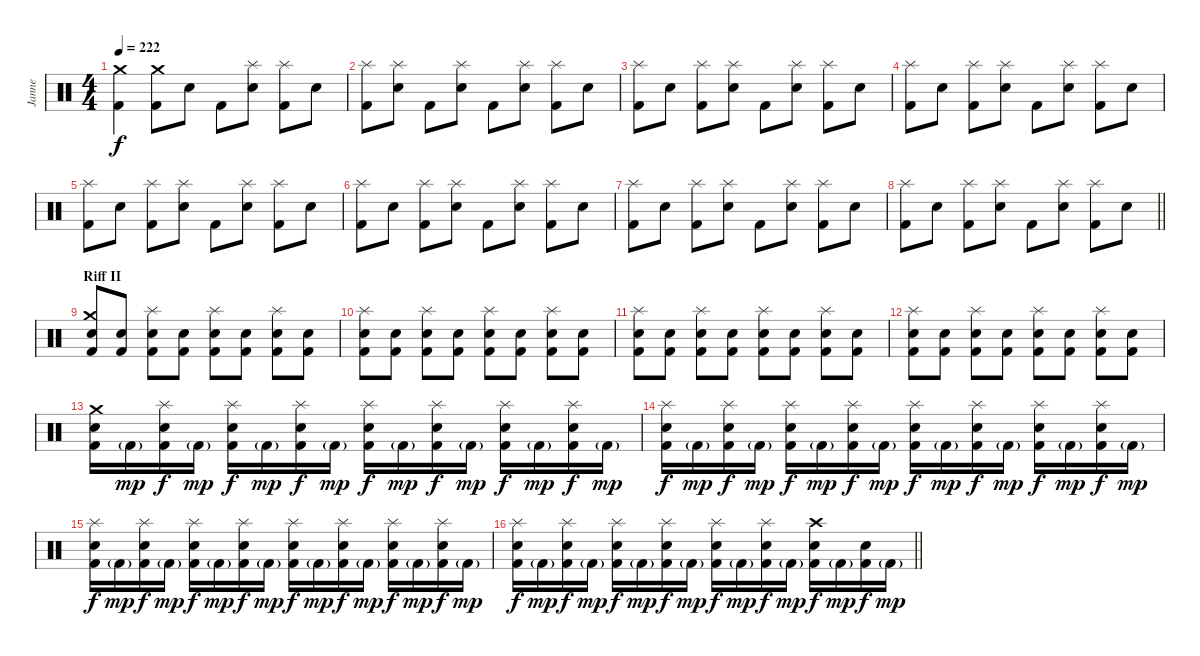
\track ("Janne" "Janne") {instrument percussion}
\staff {score}
\articulation defaults
\ts (4 4)
\section ("" "")
\tempo 222
\clef neutral
\ks c
("Kick (hit) 2" "Crash medium (hit)").4{dy f} ("Kick (hit) 2" "Crash medium (hit)").8 "Electric Snare (hit)".8 "Kick (hit) 2".8 ("Electric Snare (hit)" "Splash (hit)").8 ("Kick (hit) 2" "Splash (hit)").8 "Electric Snare (hit)".8 |
("Kick (hit) 2" "Splash (hit)").8 ("Electric Snare (hit)" "Splash (hit)").8 "Kick (hit) 2".8 ("Electric Snare (hit)" "Splash (hit)").8 "Kick (hit) 2".8 ("Electric Snare (hit)" "Splash (hit)").8 ("Kick (hit) 2" "Splash (hit)").8 "Electric Snare (hit)".8 |
("Kick (hit) 2" "Splash (hit)").8 "Electric Snare (hit)".8 ("Kick (hit) 2" "Splash (hit)").8 ("Electric Snare (hit)" "Splash (hit)").8 "Kick (hit) 2".8 ("Electric Snare (hit)" "Splash (hit)").8 ("Kick (hit) 2" "Splash (hit)").8 "Electric Snare (hit)".8 |
("Kick (hit) 2" "Splash (hit)").8 "Electric Snare (hit)".8 ("Kick (hit) 2" "Splash (hit)").8 ("Electric Snare (hit)" "Splash (hit)").8 "Kick (hit) 2".8 ("Electric Snare (hit)" "Splash (hit)").8 ("Kick (hit) 2" "Splash (hit)").8 "Electric Snare (hit)".8 |
("Kick (hit) 2" "Splash (hit)").8 "Electric Snare (hit)".8 ("Kick (hit) 2" "Splash (hit)").8 ("Electric Snare (hit)" "Splash (hit)").8 "Kick (hit) 2".8 ("Electric Snare (hit)" "Splash (hit)").8 ("Kick (hit) 2" "Splash (hit)").8 "Electric Snare (hit)".8 |
("Kick (hit) 2" "Splash (hit)").8 "Electric Snare (hit)".8 ("Kick (hit) 2" "Splash (hit)").8 ("Electric Snare (hit)" "Splash (hit)").8 "Kick (hit) 2".8 ("Electric Snare (hit)" "Splash (hit)").8 ("Kick (hit) 2" "Splash (hit)").8 "Electric Snare (hit)".8 |
("Kick (hit) 2" "Splash (hit)").8 "Electric Snare (hit)".8 ("Kick (hit) 2" "Splash (hit)").8 ("Electric Snare (hit)" "Splash (hit)").8 "Kick (hit) 2".8 ("Electric Snare (hit)" "Splash (hit)").8 ("Kick (hit) 2" "Splash (hit)").8 "Electric Snare (hit)".8 |
\barLineRight lightlight
("Kick (hit) 2" "Splash (hit)").8 "Electric Snare (hit)".8 ("Kick (hit) 2" "Splash (hit)").8 ("Electric Snare (hit)" "Splash (hit)").8 "Kick (hit) 2".8 ("Electric Snare (hit)" "Splash (hit)").8 ("Kick (hit) 2" "Splash (hit)").8 "Electric Snare (hit)".8 |
\section ("" "Riff II")
("Kick (hit) 2" "Electric Snare (hit)" "Crash medium (hit)").8 ("Kick (hit) 2" "Electric Snare (hit)").8 ("Kick (hit) 2" "Electric Snare (hit)" "Splash (hit)").8 ("Kick (hit) 2" "Electric Snare (hit)").8 ("Kick (hit) 2" "Electric Snare (hit)" "Splash (hit)").8 ("Kick (hit) 2" "Electric Snare (hit)").8 ("Kick (hit) 2" "Electric Snare (hit)" "Splash (hit)").8 ("Kick (hit) 2" "Electric Snare (hit)").8 |
("Kick (hit) 2" "Electric Snare (hit)" "Splash (hit)").8 ("Kick (hit) 2" "Electric Snare (hit)").8 ("Kick (hit) 2" "Electric Snare (hit)" "Splash (hit)").8 ("Kick (hit) 2" "Electric Snare (hit)").8 ("Kick (hit) 2" "Electric Snare (hit)" "Splash (hit)").8 ("Kick (hit) 2" "Electric Snare (hit)").8 ("Kick (hit) 2" "Electric Snare (hit)" "Splash (hit)").8 ("Kick (hit) 2" "Electric Snare (hit)").8 |
("Kick (hit) 2" "Electric Snare (hit)" "Splash (hit)").8 ("Kick (hit) 2" "Electric Snare (hit)").8 ("Kick (hit) 2" "Electric Snare (hit)" "Splash (hit)").8 ("Kick (hit) 2" "Electric Snare (hit)").8 ("Kick (hit) 2" "Electric Snare (hit)" "Splash (hit)").8 ("Kick (hit) 2" "Electric Snare (hit)").8 ("Kick (hit) 2" "Electric Snare (hit)" "Splash (hit)").8 ("Kick (hit) 2" "Electric Snare (hit)").8 |
("Kick (hit) 2" "Electric Snare (hit)" "Splash (hit)").8 ("Kick (hit) 2" "Electric Snare (hit)").8 ("Kick (hit) 2" "Electric Snare (hit)" "Splash (hit)").8 ("Kick (hit) 2" "Electric Snare (hit)").8 ("Kick (hit) 2" "Electric Snare (hit)" "Splash (hit)").8 ("Kick (hit) 2" "Electric Snare (hit)").8 ("Kick (hit) 2" "Electric Snare (hit)" "Splash (hit)").8 ("Kick (hit) 2" "Electric Snare (hit)").8 |
("Kick (hit) 2" "Electric Snare (hit)" "Crash medium (hit)").16 "Kick (hit) 2"{g}.16{dy mp} ("Kick (hit) 2" "Electric Snare (hit)" "Splash (hit)").16{dy f} "Kick (hit) 2"{g}.16{dy mp} ("Kick (hit) 2" "Electric Snare (hit)" "Splash (hit)").16{dy f} "Kick (hit) 2"{g}.16{dy mp} ("Kick (hit) 2" "Electric Snare (hit)" "Splash (hit)").16{dy f} "Kick (hit) 2"{g}.16{dy mp} ("Kick (hit) 2" "Electric Snare (hit)" "Splash (hit)").16{dy f} "Kick (hit) 2"{g}.16{dy mp} ("Kick (hit) 2" "Electric Snare (hit)" "Splash (hit)").16{dy f} "Kick (hit) 2"{g}.16{dy mp} ("Kick (hit) 2" "Electric Snare (hit)" "Splash (hit)").16{dy f} "Kick (hit) 2"{g}.16{dy mp} ("Kick (hit) 2" "Electric Snare (hit)" "Splash (hit)").16{dy f} "Kick (hit) 2"{g}.16{dy mp} |
("Kick (hit) 2" "Electric Snare (hit)" "Splash (hit)").16{dy f} "Kick (hit) 2"{g}.16{dy mp} ("Kick (hit) 2" "Electric Snare (hit)" "Splash (hit)").16{dy f} "Kick (hit) 2"{g}.16{dy mp} ("Kick (hit) 2" "Electric Snare (hit)" "Splash (hit)").16{dy f} "Kick (hit) 2"{g}.16{dy mp} ("Kick (hit) 2" "Electric Snare (hit)" "Splash (hit)").16{dy f} "Kick (hit) 2"{g}.16{dy mp} ("Kick (hit) 2" "Electric Snare (hit)" "Splash (hit)").16{dy f} "Kick (hit) 2"{g}.16{dy mp} ("Kick (hit) 2" "Electric Snare (hit)" "Splash (hit)").16{dy f} "Kick (hit) 2"{g}.16{dy mp} ("Kick (hit) 2" "Electric Snare (hit)" "Splash (hit)").16{dy f} "Kick (hit) 2"{g}.16{dy mp} ("Kick (hit) 2" "Electric Snare (hit)" "Splash (hit)").16{dy f} "Kick (hit) 2"{g}.16{dy mp} |
("Kick (hit) 2" "Electric Snare (hit)" "Splash (hit)").16{dy f} "Kick (hit) 2"{g}.16{dy mp} ("Kick (hit) 2" "Electric Snare (hit)" "Splash (hit)").16{dy f} "Kick (hit) 2"{g}.16{dy mp} ("Kick (hit) 2" "Electric Snare (hit)" "Splash (hit)").16{dy f} "Kick (hit) 2"{g}.16{dy mp} ("Kick (hit) 2" "Electric Snare (hit)" "Splash (hit)").16{dy f} "Kick (hit) 2"{g}.16{dy mp} ("Kick (hit) 2" "Electric Snare (hit)" "Splash (hit)").16{dy f} "Kick (hit) 2"{g}.16{dy mp} ("Kick (hit) 2" "Electric Snare (hit)" "Splash (hit)").16{dy f} "Kick (hit) 2"{g}.16{dy mp} ("Kick (hit) 2" "Electric Snare (hit)" "Splash (hit)").16{dy f} "Kick (hit) 2"{g}.16{dy mp} ("Kick (hit) 2" "Electric Snare (hit)" "Splash (hit)").16{dy f} "Kick (hit) 2"{g}.16{dy mp} |
\barLineRight lightlight
("Kick (hit) 2" "Electric Snare (hit)" "Splash (hit)").16{dy f} "Kick (hit) 2"{g}.16{dy mp} ("Kick (hit) 2" "Electric Snare (hit)" "Splash (hit)").16{dy f} "Kick (hit) 2"{g}.16{dy mp} ("Kick (hit) 2" "Electric Snare (hit)" "Splash (hit)").16{dy f} "Kick (hit) 2"{g}.16{dy mp} ("Kick (hit) 2" "Electric Snare (hit)" "Splash (hit)").16{dy f} "Kick (hit) 2"{g}.16{dy mp} ("Kick (hit) 2" "Electric Snare (hit)" "Splash (hit)").16{dy f} "Kick (hit) 2"{g}.16{dy mp} ("Kick (hit) 2" "Electric Snare (hit)" "Splash (hit)").16{dy f} "Kick (hit) 2"{g}.16{dy mp} ("Kick (hit) 2" "Electric Snare (hit)" "Crash high (hit)").16{dy f} "Kick (hit) 2"{g}.16{dy mp} ("Kick (hit) 2" "Electric Snare (hit)").16{dy f} "Kick (hit) 2"{g}.16{dy mp}
